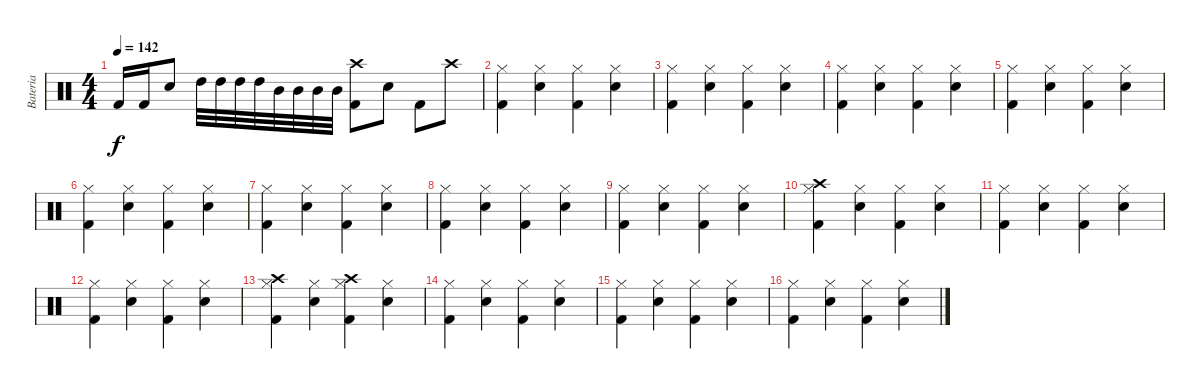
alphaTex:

\track ("Bateria" "Bateria") {instrument percussion}
\staff {score}
\articulation defaults
\ts (4 4)
\tempo 142
\clef neutral
\ks c "Kick (hit) 2".16{dy f} "Kick (hit) 2".16 "Electric Snare (hit)".8 "High Tom (hit)".32 "High Tom (hit)".32 "High Tom (hit)".32 "High Tom (hit)".32 "Mid Tom (hit)".32 "Mid Tom (hit)".32 "Mid Tom (hit)".32 "Mid Tom (hit)".32
("Crash high (hit)" "Kick (hit) 2").8 "Electric Snare (hit)".8 "Kick (hit) 2".8 "Crash high (hit)".8 |
("Hi-Hat (closed)" "Kick (hit) 2").4 ("Hi-Hat (closed)" "Electric Snare (hit)").4 ("Hi-Hat (closed)" "Kick (hit) 2").4 ("Hi-Hat (closed)" "Electric Snare (hit)").4 |
("Hi-Hat (closed)" "Kick (hit) 2").4 ("Hi-Hat (closed)" "Electric Snare (hit)").4 ("Hi-Hat (closed)" "Kick (hit) 2").4 ("Hi-Hat (closed)" "Electric Snare (hit)").4 |
("Hi-Hat (closed)" "Kick (hit) 2").4 ("Hi-Hat (closed)" "Electric Snare (hit)").4 ("Hi-Hat (closed)" "Kick (hit) 2").4 ("Hi-Hat (closed)" "Electric Snare (hit)").4 |
("Hi-Hat (closed)" "Kick (hit) 2").4 ("Hi-Hat (closed)" "Electric Snare (hit)").4 ("Hi-Hat (closed)" "Kick (hit) 2").4 ("Hi-Hat (closed)" "Electric Snare (hit)").4 |
("Hi-Hat (closed)" "Kick (hit) 2").4 ("Hi-Hat (closed)" "Electric Snare (hit)").4 ("Hi-Hat (closed)" "Kick (hit) 2").4 ("Hi-Hat (closed)" "Electric Snare (hit)").4 |
("Hi-Hat (closed)" "Kick (hit) 2").4 ("Hi-Hat (closed)" "Electric Snare (hit)").4 ("Hi-Hat (closed)" "Kick (hit) 2").4 ("Hi-Hat (closed)" "Electric Snare (hit)").4 |
("Hi-Hat (closed)" "Kick (hit) 2").4 ("Hi-Hat (closed)" "Electric Snare (hit)").4 ("Hi-Hat (closed)" "Kick (hit) 2").4 ("Hi-Hat (closed)" "Electric Snare (hit)").4 |
("Hi-Hat (closed)" "Kick (hit) 2").4 ("Hi-Hat (closed)" "Electric Snare (hit)").4 ("Hi-Hat (closed)" "Kick (hit) 2").4 ("Hi-Hat (closed)" "Electric Snare (hit)").4 |
("Crash high (hit)" "Hi-Hat (closed)" "Kick (hit) 2").4 ("Hi-Hat (closed)" "Electric Snare (hit)").4 ("Hi-Hat (closed)" "Kick (hit) 2").4 ("Hi-Hat (closed)" "Electric Snare (hit)").4 |
("Hi-Hat (closed)" "Kick (hit) 2").4 ("Hi-Hat (closed)" "Electric Snare (hit)").4 ("Hi-Hat (closed)" "Kick (hit) 2").4 ("Hi-Hat (closed)" "Electric Snare (hit)").4 |
("Hi-Hat (closed)" "Kick (hit) 2").4 ("Hi-Hat (closed)" "Electric Snare (hit)").4 ("Hi-Hat (closed)" "Kick (hit) 2").4 ("Hi-Hat (closed)" "Electric Snare (hit)").4 |
("Crash high (hit)" "Hi-Hat (closed)" "Kick (hit) 2").4 ("Hi-Hat (closed)" "Electric Snare (hit)").4 ("Crash high (hit)" "Hi-Hat (closed)" "Kick (hit) 2").4 ("Hi-Hat (closed)" "Electric Snare (hit)").4 |
("Hi-Hat (closed)" "Kick (hit) 2").4 ("Hi-Hat (closed)" "Electric Snare (hit)").4 ("Hi-Hat (closed)" "Kick (hit) 2").4 ("Hi-Hat (closed)" "Electric Snare (hit)").4 |
("Hi-Hat (closed)" "Kick (hit) 2").4 ("Hi-Hat (closed)" "Electric Snare (hit)").4 ("Hi-Hat (closed)" "Kick (hit) 2").4 ("Hi-Hat (closed)" "Electric Snare (hit)").4 |
("Hi-Hat (closed)" "Kick (hit) 2").4 ("Hi-Hat (closed)" "Electric Snare (hit)").4 ("Hi-Hat (closed)" "Kick (hit) 2").4 ("Hi-Hat (closed)" "Electric Snare (hit)").4
